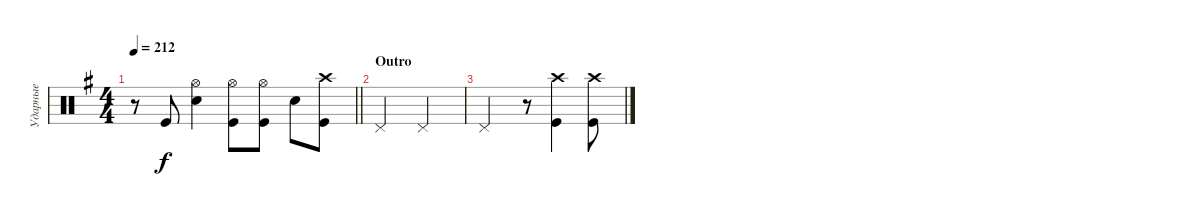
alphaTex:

\track ("Ударные" "Ударные") {instrument percussion}
\staff {score}
\articulation defaults
\ts (4 4)
\tempo 212
\clef neutral
\barLineRight lightlight
\ks eminor
r.8{dy f} "Kick (hit)".8 ("Snare (hit) 2" "Hi-Hat (open)").4 ("Hi-Hat (open)" "Kick (hit)").8 ("Hi-Hat (open)" "Kick (hit)").8 "Snare (hit) 2".8 ("Kick (hit)" "Crash high (hit)").8 |
\section ("" "Outro")
"Pedal Hi-Hat (hit)".2 "Pedal Hi-Hat (hit)".2 |
"Pedal Hi-Hat (hit)".2 r.8 ("Crash high (hit)" "Kick (hit)").4 ("Kick (hit)" "Crash high (hit)").8
